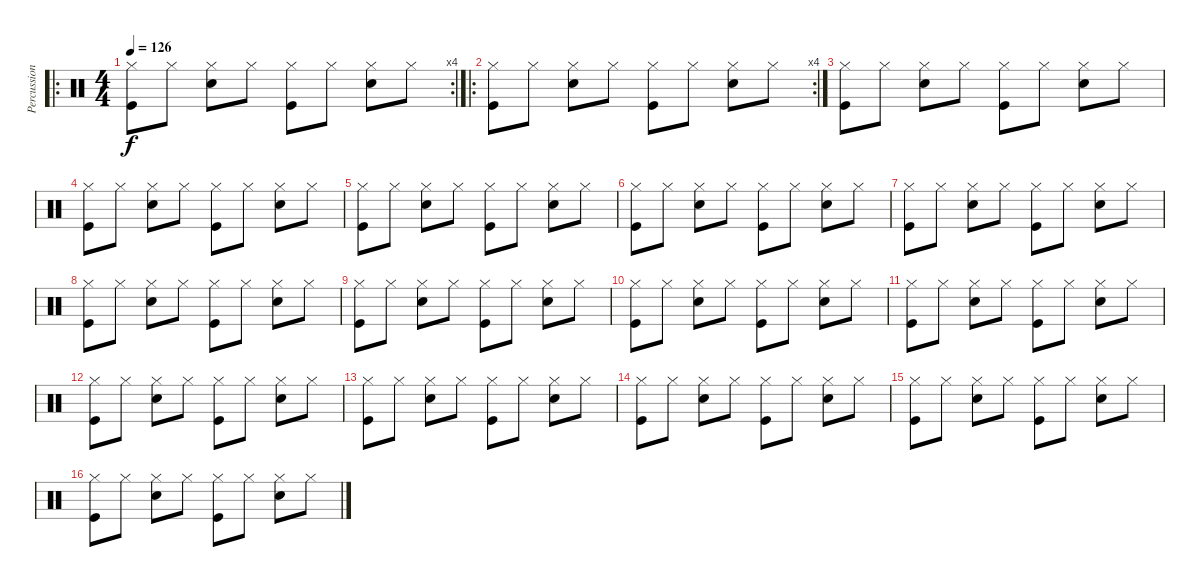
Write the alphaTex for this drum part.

\track ("Percussions" "Percussion") {instrument percussion}
\staff {score}
\articulation defaults
\ro
\rc 4
\ts (4 4)
\tempo 126
\clef neutral
\ks c
("Hi-Hat (closed)" "Kick (hit)").8{dy f} "Hi-Hat (closed)".8 ("Hi-Hat (closed)" "Snare (hit) 2").8 "Hi-Hat (closed)".8 ("Hi-Hat (closed)" "Kick (hit)").8 "Hi-Hat (closed)".8 ("Hi-Hat (closed)" "Snare (hit) 2").8 "Hi-Hat (closed)".8 |
\ro
\rc 4
("Hi-Hat (closed)" "Kick (hit)").8 "Hi-Hat (closed)".8 ("Hi-Hat (closed)" "Snare (hit) 2").8 "Hi-Hat (closed)".8 ("Hi-Hat (closed)" "Kick (hit)").8 "Hi-Hat (closed)".8 ("Hi-Hat (closed)" "Snare (hit) 2").8 "Hi-Hat (closed)".8 |
("Hi-Hat (closed)" "Kick (hit)").8 "Hi-Hat (closed)".8 ("Hi-Hat (closed)" "Snare (hit) 2").8 "Hi-Hat (closed)".8 ("Hi-Hat (closed)" "Kick (hit)").8 "Hi-Hat (closed)".8 ("Hi-Hat (closed)" "Snare (hit) 2").8 "Hi-Hat (closed)".8 |
("Hi-Hat (closed)" "Kick (hit)").8 "Hi-Hat (closed)".8 ("Hi-Hat (closed)" "Snare (hit) 2").8 "Hi-Hat (closed)".8 ("Hi-Hat (closed)" "Kick (hit)").8 "Hi-Hat (closed)".8 ("Hi-Hat (closed)" "Snare (hit) 2").8 "Hi-Hat (closed)".8 |
("Hi-Hat (closed)" "Kick (hit)").8 "Hi-Hat (closed)".8 ("Hi-Hat (closed)" "Snare (hit) 2").8 "Hi-Hat (closed)".8 ("Hi-Hat (closed)" "Kick (hit)").8 "Hi-Hat (closed)".8 ("Hi-Hat (closed)" "Snare (hit) 2").8 "Hi-Hat (closed)".8 |
("Hi-Hat (closed)" "Kick (hit)").8 "Hi-Hat (closed)".8 ("Hi-Hat (closed)" "Snare (hit) 2").8 "Hi-Hat (closed)".8 ("Hi-Hat (closed)" "Kick (hit)").8 "Hi-Hat (closed)".8 ("Hi-Hat (closed)" "Snare (hit) 2").8 "Hi-Hat (closed)".8 |
("Hi-Hat (closed)" "Kick (hit)").8 "Hi-Hat (closed)".8 ("Hi-Hat (closed)" "Snare (hit) 2").8 "Hi-Hat (closed)".8 ("Hi-Hat (closed)" "Kick (hit)").8 "Hi-Hat (closed)".8 ("Hi-Hat (closed)" "Snare (hit) 2").8 "Hi-Hat (closed)".8 |
("Hi-Hat (closed)" "Kick (hit)").8 "Hi-Hat (closed)".8 ("Hi-Hat (closed)" "Snare (hit) 2").8 "Hi-Hat (closed)".8 ("Hi-Hat (closed)" "Kick (hit)").8 "Hi-Hat (closed)".8 ("Hi-Hat (closed)" "Snare (hit) 2").8 "Hi-Hat (closed)".8 |
("Hi-Hat (closed)" "Kick (hit)").8 "Hi-Hat (closed)".8 ("Hi-Hat (closed)" "Snare (hit) 2").8 "Hi-Hat (closed)".8 ("Hi-Hat (closed)" "Kick (hit)").8 "Hi-Hat (closed)".8 ("Hi-Hat (closed)" "Snare (hit) 2").8 "Hi-Hat (closed)".8 |
("Hi-Hat (closed)" "Kick (hit)").8 "Hi-Hat (closed)".8 ("Hi-Hat (closed)" "Snare (hit) 2").8 "Hi-Hat (closed)".8 ("Hi-Hat (closed)" "Kick (hit)").8 "Hi-Hat (closed)".8 ("Hi-Hat (closed)" "Snare (hit) 2").8 "Hi-Hat (closed)".8 |
("Hi-Hat (closed)" "Kick (hit)").8 "Hi-Hat (closed)".8 ("Hi-Hat (closed)" "Snare (hit) 2").8 "Hi-Hat (closed)".8 ("Hi-Hat (closed)" "Kick (hit)").8 "Hi-Hat (closed)".8 ("Hi-Hat (closed)" "Snare (hit) 2").8 "Hi-Hat (closed)".8 |
("Hi-Hat (closed)" "Kick (hit)").8 "Hi-Hat (closed)".8 ("Hi-Hat (closed)" "Snare (hit) 2").8 "Hi-Hat (closed)".8 ("Hi-Hat (closed)" "Kick (hit)").8 "Hi-Hat (closed)".8 ("Hi-Hat (closed)" "Snare (hit) 2").8 "Hi-Hat (closed)".8 |
("Hi-Hat (closed)" "Kick (hit)").8 "Hi-Hat (closed)".8 ("Hi-Hat (closed)" "Snare (hit) 2").8 "Hi-Hat (closed)".8 ("Hi-Hat (closed)" "Kick (hit)").8 "Hi-Hat (closed)".8 ("Hi-Hat (closed)" "Snare (hit) 2").8 "Hi-Hat (closed)".8 |
("Hi-Hat (closed)" "Kick (hit)").8 "Hi-Hat (closed)".8 ("Hi-Hat (closed)" "Snare (hit) 2").8 "Hi-Hat (closed)".8 ("Hi-Hat (closed)" "Kick (hit)").8 "Hi-Hat (closed)".8 ("Hi-Hat (closed)" "Snare (hit) 2").8 "Hi-Hat (closed)".8 |
("Hi-Hat (closed)" "Kick (hit)").8 "Hi-Hat (closed)".8 ("Hi-Hat (closed)" "Snare (hit) 2").8 "Hi-Hat (closed)".8 ("Hi-Hat (closed)" "Kick (hit)").8 "Hi-Hat (closed)".8 ("Hi-Hat (closed)" "Snare (hit) 2").8 "Hi-Hat (closed)".8 |
("Hi-Hat (closed)" "Kick (hit)").8 "Hi-Hat (closed)".8 ("Hi-Hat (closed)" "Snare (hit) 2").8 "Hi-Hat (closed)".8 ("Hi-Hat (closed)" "Kick (hit)").8 "Hi-Hat (closed)".8 ("Hi-Hat (closed)" "Snare (hit) 2").8 "Hi-Hat (closed)".8
